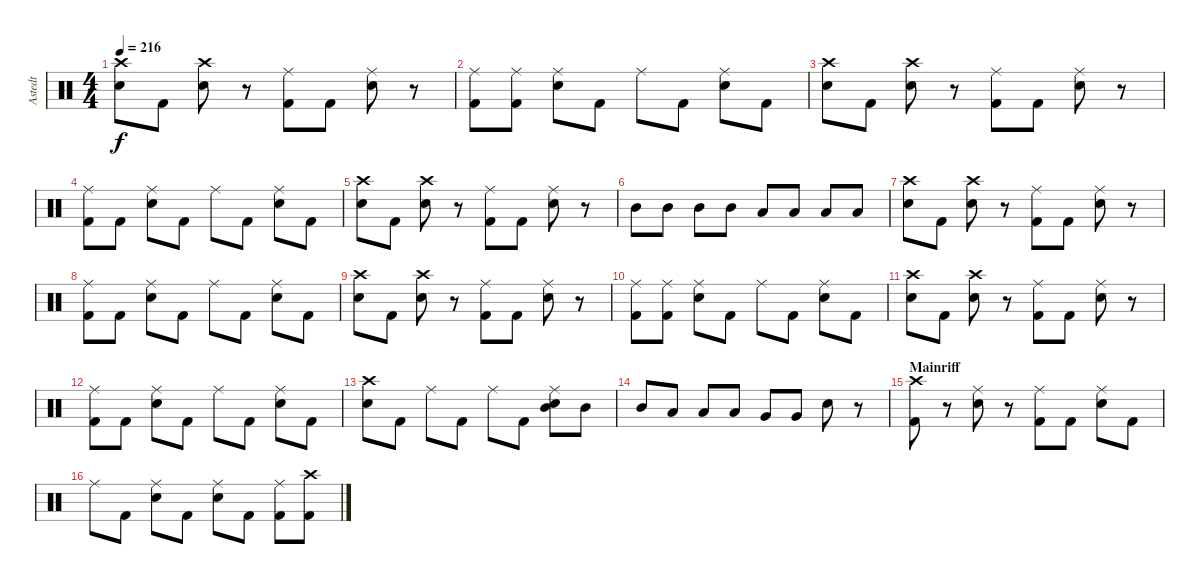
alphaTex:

\track ("Astedt" "Astedt") {instrument percussion}
\staff {score}
\articulation defaults
\ts (4 4)
\tempo 216
\clef neutral
\ks c
("Crash high (hit)" "Snare (hit) 2").8{dy f} "Kick (hit) 2".8 ("Crash high (hit)" "Snare (hit) 2").8 r.8 ("Ride (middle)" "Kick (hit) 2").8 "Kick (hit) 2".8 ("Ride (middle)" "Snare (hit) 2").8 r.8 |
("Ride (middle)" "Kick (hit) 2").8 ("Ride (middle)" "Kick (hit) 2").8 ("Ride (middle)" "Snare (hit) 2").8 "Kick (hit) 2".8 "Ride (middle)".8 "Kick (hit) 2".8 ("Ride (middle)" "Snare (hit) 2").8 "Kick (hit) 2".8 |
("Crash high (hit)" "Snare (hit) 2").8 "Kick (hit) 2".8 ("Crash high (hit)" "Snare (hit) 2").8 r.8 ("Ride (middle)" "Kick (hit) 2").8 "Kick (hit) 2".8 ("Ride (middle)" "Snare (hit) 2").8 r.8 |
("Ride (middle)" "Kick (hit) 2").8 "Kick (hit) 2".8 ("Ride (middle)" "Snare (hit) 2").8 "Kick (hit) 2".8 "Ride (middle)".8 "Kick (hit) 2".8 ("Ride (middle)" "Snare (hit) 2").8 "Kick (hit) 2".8 |
("Crash high (hit)" "Snare (hit) 2").8 "Kick (hit) 2".8 ("Crash high (hit)" "Snare (hit) 2").8 r.8 ("Ride (middle)" "Kick (hit) 2").8 "Kick (hit) 2".8 ("Ride (middle)" "Snare (hit) 2").8 r.8 |
"Mid Tom (hit)".8 "Mid Tom (hit)".8 "Mid Tom (hit)".8 "Mid Tom (hit)".8 "Low Tom (hit)".8 "Low Tom (hit)".8 "Low Tom (hit)".8 "Low Tom (hit)".8 |
("Crash high (hit)" "Snare (hit) 2").8 "Kick (hit) 2".8 ("Crash high (hit)" "Snare (hit) 2").8 r.8 ("Ride (middle)" "Kick (hit) 2").8 "Kick (hit) 2".8 ("Ride (middle)" "Snare (hit) 2").8 r.8 |
("Ride (middle)" "Kick (hit) 2").8 "Kick (hit) 2".8 ("Ride (middle)" "Snare (hit) 2").8 "Kick (hit) 2".8 "Ride (middle)".8 "Kick (hit) 2".8 ("Ride (middle)" "Snare (hit) 2").8 "Kick (hit) 2".8 |
("Crash high (hit)" "Snare (hit) 2").8 "Kick (hit) 2".8 ("Crash high (hit)" "Snare (hit) 2").8 r.8 ("Ride (middle)" "Kick (hit) 2").8 "Kick (hit) 2".8 ("Ride (middle)" "Snare (hit) 2").8 r.8 |
("Ride (middle)" "Kick (hit) 2").8 ("Ride (middle)" "Kick (hit) 2").8 ("Ride (middle)" "Snare (hit) 2").8 "Kick (hit) 2".8 "Ride (middle)".8 "Kick (hit) 2".8 ("Ride (middle)" "Snare (hit) 2").8 "Kick (hit) 2".8 |
("Crash high (hit)" "Snare (hit) 2").8 "Kick (hit) 2".8 ("Crash high (hit)" "Snare (hit) 2").8 r.8 ("Ride (middle)" "Kick (hit) 2").8 "Kick (hit) 2".8 ("Ride (middle)" "Snare (hit) 2").8 r.8 |
("Ride (middle)" "Kick (hit) 2").8 "Kick (hit) 2".8 ("Ride (middle)" "Snare (hit) 2").8 "Kick (hit) 2".8 "Ride (middle)".8 "Kick (hit) 2".8 ("Ride (middle)" "Snare (hit) 2").8 "Kick (hit) 2".8 |
("Crash high (hit)" "Snare (hit) 2").8 "Kick (hit) 2".8 "Ride (middle)".8 "Kick (hit) 2".8 "Ride (middle)".8 "Kick (hit) 2".8 ("Ride (middle)" "Mid Tom (hit)" "Snare (hit) 2").8 "Mid Tom (hit)".8 |
"Mid Tom (hit)".8 "Low Tom (hit)".8 "Low Tom (hit)".8 "Low Tom (hit)".8 "Very Low Tom (hit)".8 "Very Low Tom (hit)".8 "Snare (hit) 2".8 r.8 |
\section ("" "Mainriff")
("Crash high (hit)" "Kick (hit) 2").8 r.8 ("Ride (middle)" "Snare (hit) 2").8 r.8 ("Ride (middle)" "Kick (hit) 2").8 "Kick (hit) 2".8 ("Ride (middle)" "Snare (hit) 2").8 "Kick (hit) 2".8 |
"Ride (middle)".8 "Kick (hit) 2".8 ("Ride (middle)" "Snare (hit) 2").8 "Kick (hit) 2".8 ("Ride (middle)" "Snare (hit) 2").8 "Kick (hit) 2".8 ("Ride (middle)" "Kick (hit) 2").8 ("Crash high (hit)" "Kick (hit) 2").8
